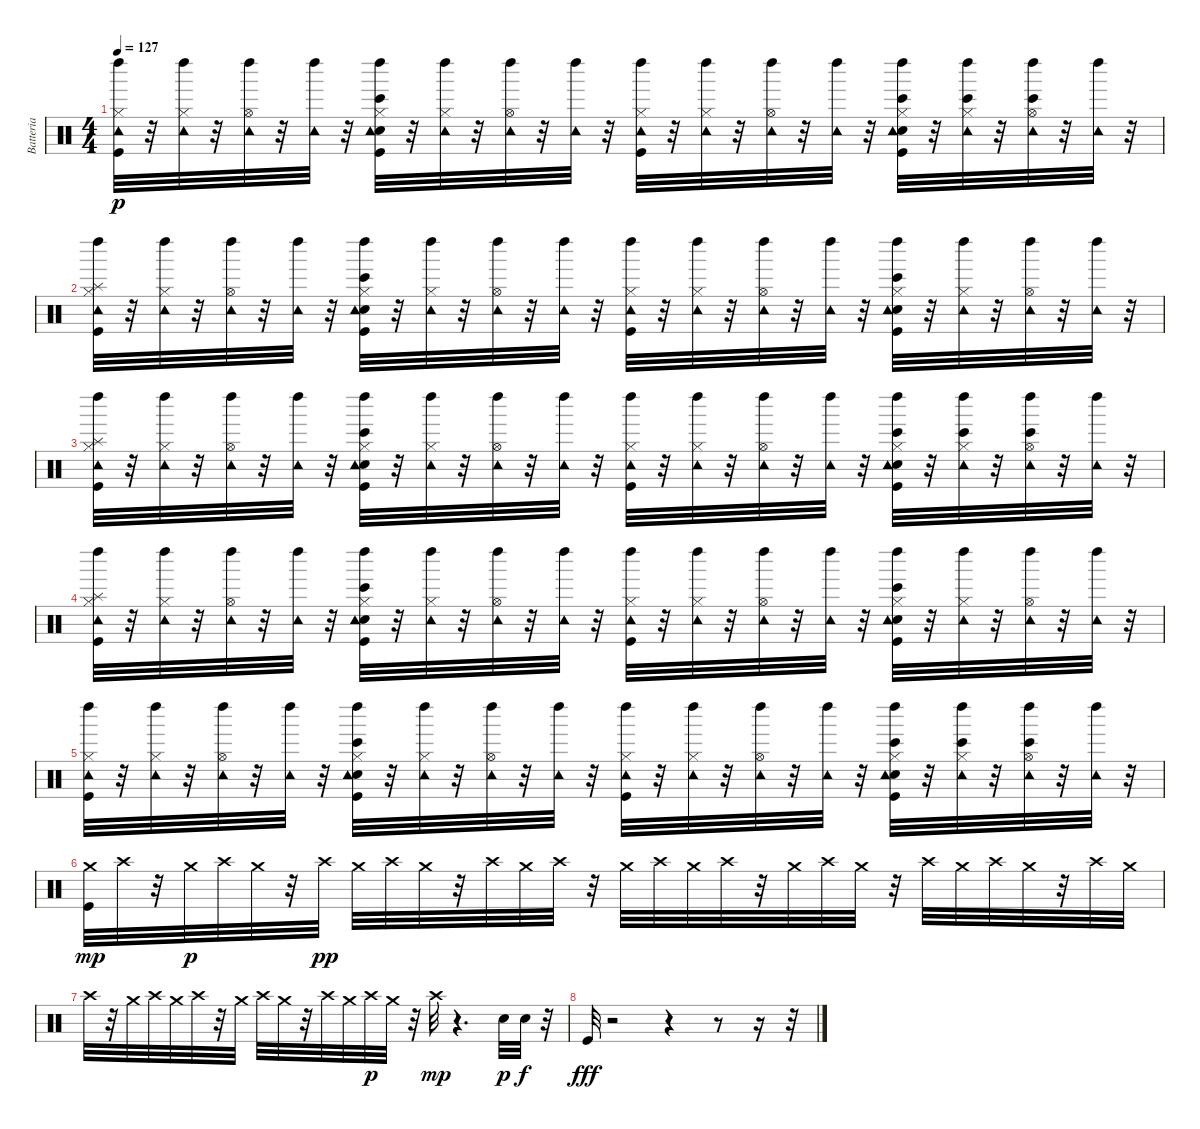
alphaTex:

\track ("Batteria" "Batteria") {instrument percussion}
\staff {score}
\articulation defaults
\ts (4 4)
\tempo 127
\clef neutral
\ks c
("Kick (hit)" "Hi-Hat (closed)" "Tambourine (hit)" "Left Maraca (hit)").32{dy p} r.32 ("Hi-Hat (closed)" "Tambourine (hit)" "Left Maraca (hit)").32 r.32 ("Hi-Hat (open)" "Tambourine (hit)" "Left Maraca (hit)").32 r.32 ("Tambourine (hit)" "Left Maraca (hit)").32 r.32 ("Bongo High (hit)" "Kick (hit)" "Electric Snare (hit)" "Hi-Hat (closed)" "Tambourine (hit)" "Left Maraca (hit)").32 r.32 ("Hi-Hat (closed)" "Tambourine (hit)" "Left Maraca (hit)").32 r.32 ("Hi-Hat (open)" "Tambourine (hit)" "Left Maraca (hit)").32 r.32 ("Tambourine (hit)" "Left Maraca (hit)").32 r.32 ("Kick (hit)" "Hi-Hat (closed)" "Tambourine (hit)" "Left Maraca (hit)").32 r.32 ("Hi-Hat (closed)" "Tambourine (hit)" "Left Maraca (hit)").32 r.32 ("Hi-Hat (open)" "Tambourine (hit)" "Left Maraca (hit)").32 r.32 ("Tambourine (hit)" "Left Maraca (hit)").32 r.32 ("Bongo High (hit)" "Kick (hit)" "Electric Snare (hit)" "Hi-Hat (closed)" "Tambourine (hit)" "Left Maraca (hit)").32 r.32 ("Bongo High (hit)" "Hi-Hat (closed)" "Tambourine (hit)" "Left Maraca (hit)").32 r.32 ("Bongo High (hit)" "Hi-Hat (open)" "Tambourine (hit)" "Left Maraca (hit)").32 r.32 ("Tambourine (hit)" "Left Maraca (hit)").32 r.32 |
("Kick (hit)" "Hi-Hat (closed)" "Tambourine (hit)" "Splash (hit)" "Left Maraca (hit)").32 r.32 ("Hi-Hat (closed)" "Tambourine (hit)" "Left Maraca (hit)").32 r.32 ("Hi-Hat (open)" "Tambourine (hit)" "Left Maraca (hit)").32 r.32 ("Tambourine (hit)" "Left Maraca (hit)").32 r.32 ("Bongo High (hit)" "Kick (hit)" "Electric Snare (hit)" "Hi-Hat (closed)" "Tambourine (hit)" "Left Maraca (hit)").32 r.32 ("Hi-Hat (closed)" "Tambourine (hit)" "Left Maraca (hit)").32 r.32 ("Hi-Hat (open)" "Tambourine (hit)" "Left Maraca (hit)").32 r.32 ("Tambourine (hit)" "Left Maraca (hit)").32 r.32 ("Kick (hit)" "Hi-Hat (closed)" "Tambourine (hit)" "Left Maraca (hit)").32 r.32 ("Hi-Hat (closed)" "Tambourine (hit)" "Left Maraca (hit)").32 r.32 ("Hi-Hat (open)" "Tambourine (hit)" "Left Maraca (hit)").32 r.32 ("Tambourine (hit)" "Left Maraca (hit)").32 r.32 ("Bongo High (hit)" "Kick (hit)" "Electric Snare (hit)" "Hi-Hat (closed)" "Tambourine (hit)" "Left Maraca (hit)").32 r.32 ("Hi-Hat (closed)" "Tambourine (hit)" "Left Maraca (hit)").32 r.32 ("Hi-Hat (open)" "Tambourine (hit)" "Left Maraca (hit)").32 r.32 ("Tambourine (hit)" "Left Maraca (hit)").32 r.32 |
("Kick (hit)" "Hi-Hat (closed)" "Tambourine (hit)" "Splash (hit)" "Left Maraca (hit)").32 r.32 ("Hi-Hat (closed)" "Tambourine (hit)" "Left Maraca (hit)").32 r.32 ("Hi-Hat (open)" "Tambourine (hit)" "Left Maraca (hit)").32 r.32 ("Tambourine (hit)" "Left Maraca (hit)").32 r.32 ("Bongo High (hit)" "Kick (hit)" "Electric Snare (hit)" "Hi-Hat (closed)" "Tambourine (hit)" "Left Maraca (hit)").32 r.32 ("Hi-Hat (closed)" "Tambourine (hit)" "Left Maraca (hit)").32 r.32 ("Hi-Hat (open)" "Tambourine (hit)" "Left Maraca (hit)").32 r.32 ("Tambourine (hit)" "Left Maraca (hit)").32 r.32 ("Kick (hit)" "Hi-Hat (closed)" "Tambourine (hit)" "Left Maraca (hit)").32 r.32 ("Hi-Hat (closed)" "Tambourine (hit)" "Left Maraca (hit)").32 r.32 ("Hi-Hat (open)" "Tambourine (hit)" "Left Maraca (hit)").32 r.32 ("Tambourine (hit)" "Left Maraca (hit)").32 r.32 ("Bongo High (hit)" "Kick (hit)" "Electric Snare (hit)" "Hi-Hat (closed)" "Tambourine (hit)" "Left Maraca (hit)").32 r.32 ("Bongo High (hit)" "Hi-Hat (closed)" "Tambourine (hit)" "Left Maraca (hit)").32 r.32 ("Bongo High (hit)" "Hi-Hat (open)" "Tambourine (hit)" "Left Maraca (hit)").32 r.32 ("Tambourine (hit)" "Left Maraca (hit)").32 r.32 |
("Kick (hit)" "Hi-Hat (closed)" "Tambourine (hit)" "Splash (hit)" "Left Maraca (hit)").32 r.32 ("Hi-Hat (closed)" "Tambourine (hit)" "Left Maraca (hit)").32 r.32 ("Hi-Hat (open)" "Tambourine (hit)" "Left Maraca (hit)").32 r.32 ("Tambourine (hit)" "Left Maraca (hit)").32 r.32 ("Bongo High (hit)" "Kick (hit)" "Electric Snare (hit)" "Hi-Hat (closed)" "Tambourine (hit)" "Left Maraca (hit)").32 r.32 ("Hi-Hat (closed)" "Tambourine (hit)" "Left Maraca (hit)").32 r.32 ("Hi-Hat (open)" "Tambourine (hit)" "Left Maraca (hit)").32 r.32 ("Tambourine (hit)" "Left Maraca (hit)").32 r.32 ("Kick (hit)" "Hi-Hat (closed)" "Tambourine (hit)" "Left Maraca (hit)").32 r.32 ("Hi-Hat (closed)" "Tambourine (hit)" "Left Maraca (hit)").32 r.32 ("Hi-Hat (open)" "Tambourine (hit)" "Left Maraca (hit)").32 r.32 ("Tambourine (hit)" "Left Maraca (hit)").32 r.32 ("Bongo High (hit)" "Kick (hit)" "Electric Snare (hit)" "Hi-Hat (closed)" "Tambourine (hit)" "Left Maraca (hit)").32 r.32 ("Hi-Hat (closed)" "Tambourine (hit)" "Left Maraca (hit)").32 r.32 ("Hi-Hat (open)" "Tambourine (hit)" "Left Maraca (hit)").32 r.32 ("Tambourine (hit)" "Left Maraca (hit)").32 r.32 |
("Kick (hit)" "Hi-Hat (closed)" "Tambourine (hit)" "Left Maraca (hit)").32 r.32 ("Hi-Hat (closed)" "Tambourine (hit)" "Left Maraca (hit)").32 r.32 ("Hi-Hat (open)" "Tambourine (hit)" "Left Maraca (hit)").32 r.32 ("Tambourine (hit)" "Left Maraca (hit)").32 r.32 ("Bongo High (hit)" "Kick (hit)" "Electric Snare (hit)" "Hi-Hat (closed)" "Tambourine (hit)" "Left Maraca (hit)").32 r.32 ("Hi-Hat (closed)" "Tambourine (hit)" "Left Maraca (hit)").32 r.32 ("Hi-Hat (open)" "Tambourine (hit)" "Left Maraca (hit)").32 r.32 ("Tambourine (hit)" "Left Maraca (hit)").32 r.32 ("Kick (hit)" "Hi-Hat (closed)" "Tambourine (hit)" "Left Maraca (hit)").32 r.32 ("Hi-Hat (closed)" "Tambourine (hit)" "Left Maraca (hit)").32 r.32 ("Hi-Hat (open)" "Tambourine (hit)" "Left Maraca (hit)").32 r.32 ("Tambourine (hit)" "Left Maraca (hit)").32 r.32 ("Bongo High (hit)" "Kick (hit)" "Electric Snare (hit)" "Hi-Hat (closed)" "Tambourine (hit)" "Left Maraca (hit)").32 r.32 ("Bongo High (hit)" "Hi-Hat (closed)" "Tambourine (hit)" "Left Maraca (hit)").32 r.32 ("Bongo High (hit)" "Hi-Hat (open)" "Tambourine (hit)" "Left Maraca (hit)").32 r.32 ("Tambourine (hit)" "Left Maraca (hit)").32 r.32 |
("Kick (hit)" "Crash medium (hit)").32{dy mp} "Crash high (hit)".32 r.32 "Crash medium (hit)".32{dy p} "Crash high (hit)".32 "Crash medium (hit)".32 r.32 "Crash high (hit)".32{dy pp} "Crash medium (hit)".32 "Crash high (hit)".32 "Crash medium (hit)".32 r.32 "Crash high (hit)".32 "Crash medium (hit)".32 "Crash high (hit)".32 r.32 "Crash medium (hit)".32 "Crash high (hit)".32 "Crash medium (hit)".32 "Crash high (hit)".32 r.32 "Crash medium (hit)".32 "Crash high (hit)".32 "Crash medium (hit)".32 r.32 "Crash high (hit)".32 "Crash medium (hit)".32 "Crash high (hit)".32 "Crash medium (hit)".32 r.32 "Crash high (hit)".32 "Crash medium (hit)".32 |
"Crash high (hit)".32 r.32 "Crash medium (hit)".32 "Crash high (hit)".32 "Crash medium (hit)".32 "Crash high (hit)".32 r.32 "Crash medium (hit)".32 "Crash high (hit)".32 "Crash medium (hit)".32 r.32 "Crash high (hit)".32 "Crash medium (hit)".32 "Crash high (hit)".32{dy p} "Crash medium (hit)".32 r.32 "Crash high (hit)".32{dy mp} r.4{d} "Snare (hit) 2".32{dy p} "Electric Snare (hit)".32{dy f} r.32 |
"Kick (hit)".32{dy fff} r.2 r.4 r.8 r.16 r.32
